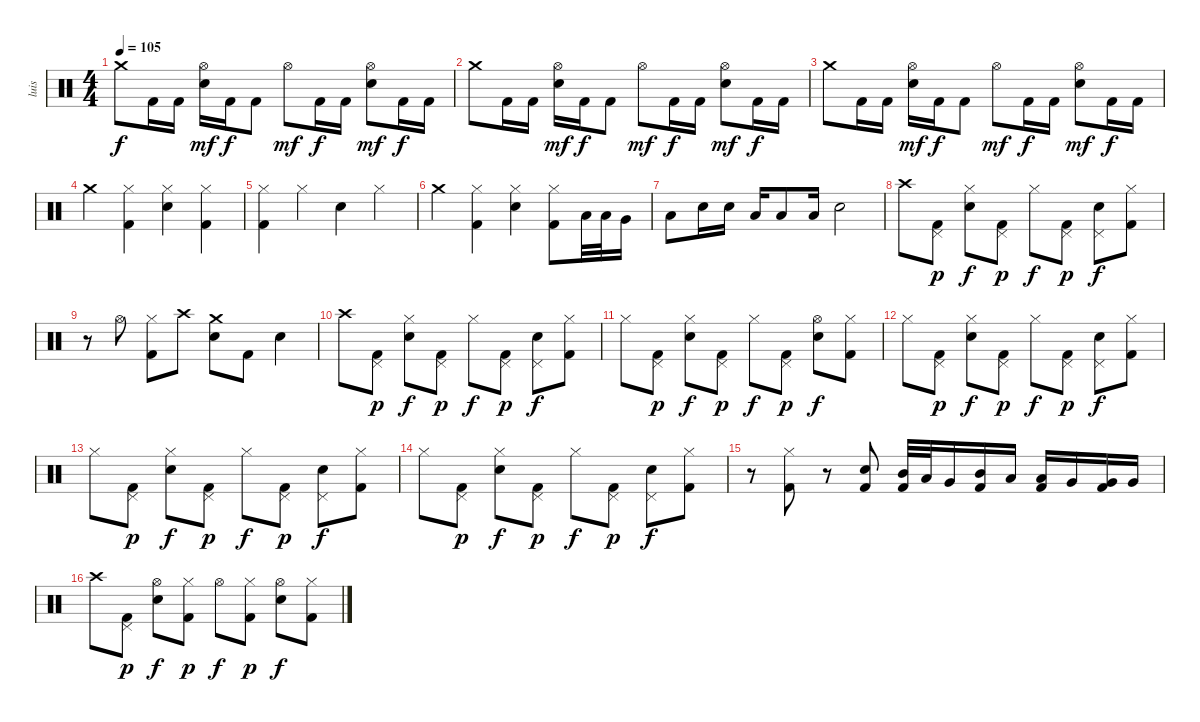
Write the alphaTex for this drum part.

\track ("luis" "luis") {instrument percussion}
\staff {score}
\articulation defaults
\ts (4 4)
\tempo 105
\clef neutral
\ks c "Crash medium (hit)".8{dy f} "Kick (hit) 2".16 "Kick (hit) 2".16
("Hi-Hat (open)" "Electric Snare (hit)").16{dy mf} "Kick (hit) 2".16{dy f} "Kick (hit) 2".8 "Hi-Hat (open)".8{dy mf} "Kick (hit) 2".16{dy f} "Kick (hit) 2".16 ("Hi-Hat (open)" "Electric Snare (hit)").8{dy mf} "Kick (hit) 2".16{dy f} "Kick (hit) 2".16 |
"Crash medium (hit)".8 "Kick (hit) 2".16 "Kick (hit) 2".16 ("Hi-Hat (open)" "Electric Snare (hit)").16{dy mf} "Kick (hit) 2".16{dy f} "Kick (hit) 2".8 "Hi-Hat (open)".8{dy mf} "Kick (hit) 2".16{dy f} "Kick (hit) 2".16 ("Hi-Hat (open)" "Electric Snare (hit)").8{dy mf} "Kick (hit) 2".16{dy f} "Kick (hit) 2".16 |
"Crash medium (hit)".8 "Kick (hit) 2".16 "Kick (hit) 2".16 ("Hi-Hat (open)" "Electric Snare (hit)").16{dy mf} "Kick (hit) 2".16{dy f} "Kick (hit) 2".8 "Hi-Hat (open)".8{dy mf} "Kick (hit) 2".16{dy f} "Kick (hit) 2".16 ("Hi-Hat (open)" "Electric Snare (hit)").8{dy mf} "Kick (hit) 2".16{dy f} "Kick (hit) 2".16 |
"Crash medium (hit)".4 ("Hi-Hat (closed)" "Kick (hit) 2").4 ("Hi-Hat (closed)" "Electric Snare (hit)").4 ("Hi-Hat (closed)" "Kick (hit) 2").4 |
("Hi-Hat (closed)" "Kick (hit) 2").4 "Hi-Hat (closed)".4 "Electric Snare (hit)".4 "Hi-Hat (closed)".4 |
"Crash medium (hit)".4 ("Hi-Hat (closed)" "Kick (hit) 2").4 ("Hi-Hat (closed)" "Electric Snare (hit)").4 ("Hi-Hat (closed)" "Kick (hit) 2").8 "Low Tom (hit)".32 "Low Tom (hit)".32 "Very Low Tom (hit)".16 |
"Low Tom (hit)".8 "Electric Snare (hit)".16 "Electric Snare (hit)".16 "Low Tom (hit)".16 "Low Tom (hit)".8 "Low Tom (hit)".16 "Electric Snare (hit)".2 |
"Crash high (hit)".8 ("Pedal Hi-Hat (hit)" "Kick (hit) 2").8{dy p} ("Electric Snare (hit)" "Hi-Hat (closed)").8{dy f} ("Pedal Hi-Hat (hit)" "Kick (hit) 2").8{dy p} "Hi-Hat (closed)".8{dy f} ("Pedal Hi-Hat (hit)" "Kick (hit) 2").8{dy p} ("Electric Snare (hit)" "Pedal Hi-Hat (hit)").8{dy f} ("Hi-Hat (closed)" "Kick (hit) 2").8 |
r.8 "Hi-Hat (open)".8 ("Hi-Hat (closed)" "Kick (hit) 2").8 "Crash high (hit)".8 ("Crash medium (hit)" "Electric Snare (hit)").8 "Kick (hit) 2".8 "Electric Snare (hit)".4 |
"Crash high (hit)".8 ("Pedal Hi-Hat (hit)" "Kick (hit) 2").8{dy p} ("Electric Snare (hit)" "Hi-Hat (closed)").8{dy f} ("Pedal Hi-Hat (hit)" "Kick (hit) 2").8{dy p} "Hi-Hat (closed)".8{dy f} ("Pedal Hi-Hat (hit)" "Kick (hit) 2").8{dy p} ("Electric Snare (hit)" "Pedal Hi-Hat (hit)").8{dy f} ("Hi-Hat (closed)" "Kick (hit) 2").8 |
"Hi-Hat (closed)".8 ("Pedal Hi-Hat (hit)" "Kick (hit) 2").8{dy p} ("Electric Snare (hit)" "Hi-Hat (closed)").8{dy f} ("Pedal Hi-Hat (hit)" "Kick (hit) 2").8{dy p} "Hi-Hat (closed)".8{dy f} ("Pedal Hi-Hat (hit)" "Kick (hit) 2").8{dy p} ("Electric Snare (hit)" "Hi-Hat (open)").8{dy f} ("Hi-Hat (closed)" "Kick (hit) 2").8 |
"Hi-Hat (closed)".8 ("Pedal Hi-Hat (hit)" "Kick (hit) 2").8{dy p} ("Electric Snare (hit)" "Hi-Hat (closed)").8{dy f} ("Pedal Hi-Hat (hit)" "Kick (hit) 2").8{dy p} "Hi-Hat (closed)".8{dy f} ("Pedal Hi-Hat (hit)" "Kick (hit) 2").8{dy p} ("Electric Snare (hit)" "Pedal Hi-Hat (hit)").8{dy f} ("Hi-Hat (closed)" "Kick (hit) 2").8 |
"Hi-Hat (closed)".8 ("Pedal Hi-Hat (hit)" "Kick (hit) 2").8{dy p} ("Electric Snare (hit)" "Hi-Hat (closed)").8{dy f} ("Pedal Hi-Hat (hit)" "Kick (hit) 2").8{dy p} "Hi-Hat (closed)".8{dy f} ("Pedal Hi-Hat (hit)" "Kick (hit) 2").8{dy p} ("Electric Snare (hit)" "Pedal Hi-Hat (hit)").8{dy f} ("Hi-Hat (closed)" "Kick (hit) 2").8 |
"Hi-Hat (closed)".8 ("Pedal Hi-Hat (hit)" "Kick (hit) 2").8{dy p} ("Electric Snare (hit)" "Hi-Hat (closed)").8{dy f} ("Pedal Hi-Hat (hit)" "Kick (hit) 2").8{dy p} "Hi-Hat (closed)".8{dy f} ("Pedal Hi-Hat (hit)" "Kick (hit) 2").8{dy p} ("Electric Snare (hit)" "Pedal Hi-Hat (hit)").8{dy f} ("Hi-Hat (closed)" "Kick (hit) 2").8 |
r.8 ("Hi-Hat (closed)" "Kick (hit) 2").8 r.8 ("Electric Snare (hit)" "Kick (hit) 2").8 ("Mid Tom (hit)" "Kick (hit) 2").32 "Low Tom (hit)".32 "Very Low Tom (hit)".16 ("Mid Tom (hit)" "Kick (hit) 2").16 "Low Tom (hit)".16 ("Low Tom (hit)" "Kick (hit) 2").16 "Very Low Tom (hit)".16 ("Very Low Tom (hit)" "Kick (hit) 2").16 "Very Low Tom (hit)".16 |
"Crash high (hit)".8 ("Pedal Hi-Hat (hit)" "Kick (hit) 2").8{dy p} ("Electric Snare (hit)" "Hi-Hat (open)").8{dy f} ("Hi-Hat (closed)" "Kick (hit) 2").8{dy p} "Hi-Hat (open)".8{dy f} ("Hi-Hat (closed)" "Kick (hit) 2").8{dy p} ("Electric Snare (hit)" "Hi-Hat (open)").8{dy f} ("Hi-Hat (closed)" "Kick (hit) 2").8
